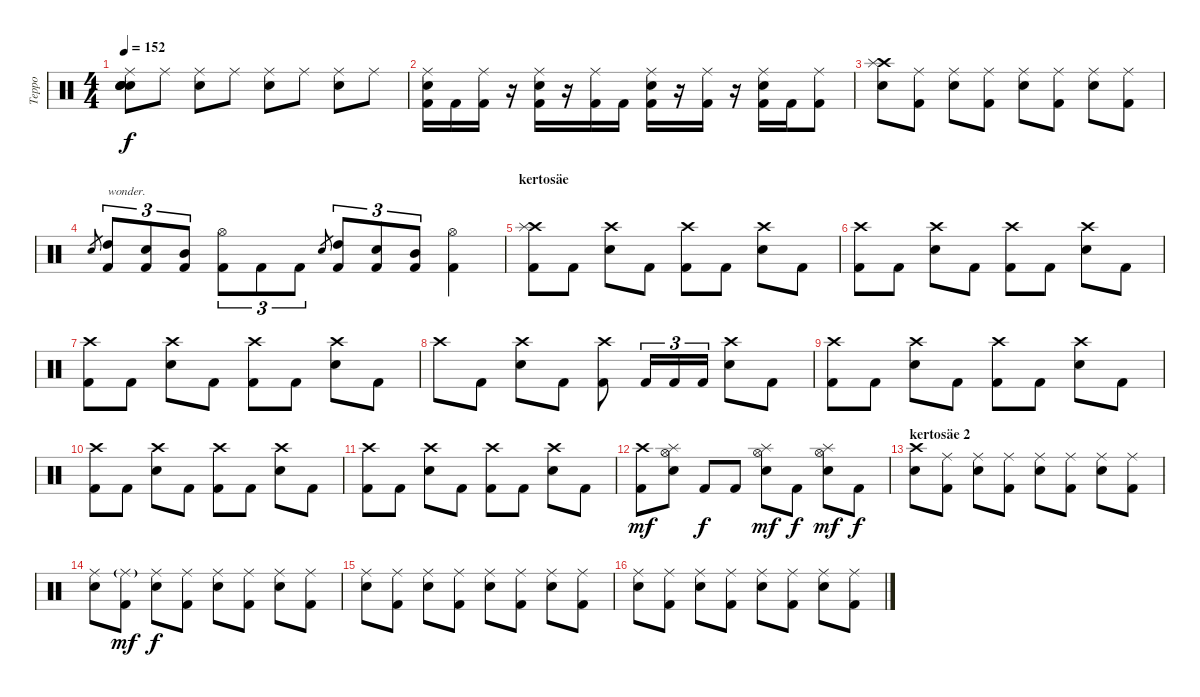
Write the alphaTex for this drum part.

\track ("Teppo" "Teppo") {instrument percussion}
\staff {score}
\articulation defaults
\ts (4 4)
\tempo 152
\clef neutral
\ks c
("Snare (hit)"{t} "Snare (hit)"{t} "Ride (middle)" "Electric Snare (hit)" "Snare (hit)"{t}).8{dy f} "Ride (middle)".8 ("Ride (middle)" "Electric Snare (hit)").8 "Ride (middle)".8 ("Ride (middle)" "Electric Snare (hit)").8 "Ride (middle)".8 ("Ride (middle)" "Electric Snare (hit)").8 "Ride (middle)".8 |
("Ride (middle)" "Electric Snare (hit)" "Kick (hit) 2").16 "Kick (hit) 2".16 ("Ride (middle)" "Kick (hit) 2").16 r.16 ("Ride (middle)" "Electric Snare (hit)" "Kick (hit) 2").16 r.16 ("Ride (middle)" "Kick (hit) 2").16 "Kick (hit) 2".16 ("Ride (middle)" "Electric Snare (hit)" "Kick (hit) 2").16 r.16 ("Ride (middle)" "Kick (hit) 2").16 r.16 ("Ride (middle)" "Electric Snare (hit)" "Kick (hit) 2").16 "Kick (hit) 2".16 ("Ride (middle)" "Kick (hit) 2").8 |
("Crash high (hit)" "Splash (hit)" "Electric Snare (hit)").8 ("Ride (middle)" "Kick (hit) 2").8 ("Ride (middle)" "Electric Snare (hit)").8 ("Ride (middle)" "Kick (hit) 2").8 ("Ride (middle)" "Electric Snare (hit)").8 ("Ride (middle)" "Kick (hit) 2").8 ("Ride (middle)" "Electric Snare (hit)").8 ("Ride (middle)" "Kick (hit) 2").8 |
"Electric Snare (hit)".8{gr} ("High Tom (hit)" "Kick (hit) 2").8{tu (3 2) txt "wonder."} ("Electric Snare (hit)" "Kick (hit) 2").8{tu (3 2)} ("Mid Tom (hit)" "Kick (hit) 2").8{tu (3 2)} ("Hi-Hat (open)" "Kick (hit) 2").8{tu (3 2)} "Kick (hit) 2".8{tu (3 2)} "Kick (hit) 2".8{tu (3 2)} "Electric Snare (hit)".8{gr} ("High Tom (hit)" "Kick (hit) 2").8{tu (3 2)} ("Electric Snare (hit)" "Kick (hit) 2").8{tu (3 2)} ("Mid Tom (hit)" "Kick (hit) 2").8{tu (3 2)} ("Hi-Hat (open)" "Kick (hit) 2").4 |
\section ("" "kertosäe")
("Crash high (hit)" "Splash (hit)" "Kick (hit) 2").8 "Kick (hit) 2".8 ("Crash high (hit)" "Electric Snare (hit)").8 "Kick (hit) 2".8 ("Crash high (hit)" "Kick (hit) 2").8 "Kick (hit) 2".8 ("Crash high (hit)" "Electric Snare (hit)").8 "Kick (hit) 2".8 |
("Crash high (hit)" "Kick (hit) 2").8 "Kick (hit) 2".8 ("Crash high (hit)" "Electric Snare (hit)").8 "Kick (hit) 2".8 ("Crash high (hit)" "Kick (hit) 2").8 "Kick (hit) 2".8 ("Crash high (hit)" "Electric Snare (hit)").8 "Kick (hit) 2".8 |
("Crash high (hit)" "Kick (hit) 2").8 "Kick (hit) 2".8 ("Crash high (hit)" "Electric Snare (hit)").8 "Kick (hit) 2".8 ("Crash high (hit)" "Kick (hit) 2").8 "Kick (hit) 2".8 ("Crash high (hit)" "Electric Snare (hit)").8 "Kick (hit) 2".8 |
"Crash high (hit)".8 "Kick (hit) 2".8 ("Crash high (hit)" "Electric Snare (hit)").8 "Kick (hit) 2".8 ("Crash high (hit)" "Kick (hit) 2").8 "Kick (hit) 2".16{tu (3 2)} "Kick (hit) 2".16{tu (3 2)} "Kick (hit) 2".16{tu (3 2)} ("Crash high (hit)" "Electric Snare (hit)").8 "Kick (hit) 2".8 |
("Crash high (hit)" "Kick (hit) 2").8 "Kick (hit) 2".8 ("Crash high (hit)" "Electric Snare (hit)").8 "Kick (hit) 2".8 ("Crash high (hit)" "Kick (hit) 2").8 "Kick (hit) 2".8 ("Crash high (hit)" "Electric Snare (hit)").8 "Kick (hit) 2".8 |
("Crash high (hit)" "Kick (hit) 2").8 "Kick (hit) 2".8 ("Crash high (hit)" "Electric Snare (hit)").8 "Kick (hit) 2".8 ("Crash high (hit)" "Kick (hit) 2").8 "Kick (hit) 2".8 ("Crash high (hit)" "Electric Snare (hit)").8 "Kick (hit) 2".8 |
("Crash high (hit)" "Kick (hit) 2").8 "Kick (hit) 2".8 ("Crash high (hit)" "Electric Snare (hit)").8 "Kick (hit) 2".8 ("Crash high (hit)" "Kick (hit) 2").8 "Kick (hit) 2".8 ("Crash high (hit)" "Electric Snare (hit)").8 "Kick (hit) 2".8 |
("Crash high (hit)" "Kick (hit) 2").8{dy mf} ("Hi-Hat (open)" "Splash (hit)" "Electric Snare (hit)").8 "Kick (hit) 2".8{dy f} "Kick (hit) 2".8 ("Hi-Hat (open)" "Splash (hit)" "Electric Snare (hit)").8{dy mf} "Kick (hit) 2".8{dy f} ("Hi-Hat (open)" "Splash (hit)" "Electric Snare (hit)").8{dy mf} "Kick (hit) 2".8{dy f} |
\section ("" "kertosäe 2")
("Crash high (hit)" "Electric Snare (hit)").8 ("Ride (middle)" "Kick (hit) 2").8 ("Ride (middle)" "Electric Snare (hit)").8 ("Ride (middle)" "Kick (hit) 2").8 ("Ride (middle)" "Electric Snare (hit)").8 ("Ride (middle)" "Kick (hit) 2").8 ("Ride (middle)" "Electric Snare (hit)").8 ("Ride (middle)" "Kick (hit) 2").8 |
("Ride (middle)" "Electric Snare (hit)").8 ("Ride (middle)"{g} "Kick (hit) 2").8{dy mf} ("Ride (middle)" "Electric Snare (hit)").8{dy f} ("Ride (middle)" "Kick (hit) 2").8 ("Ride (middle)" "Electric Snare (hit)").8 ("Ride (middle)" "Kick (hit) 2").8 ("Ride (middle)" "Electric Snare (hit)").8 ("Ride (middle)" "Kick (hit) 2").8 |
("Ride (middle)" "Electric Snare (hit)").8 ("Ride (middle)" "Kick (hit) 2").8 ("Ride (middle)" "Electric Snare (hit)").8 ("Ride (middle)" "Kick (hit) 2").8 ("Ride (middle)" "Electric Snare (hit)").8 ("Ride (middle)" "Kick (hit) 2").8 ("Ride (middle)" "Electric Snare (hit)").8 ("Ride (middle)" "Kick (hit) 2").8 |
("Ride (middle)" "Electric Snare (hit)").8 ("Ride (middle)" "Kick (hit) 2").8 ("Ride (middle)" "Electric Snare (hit)").8 ("Ride (middle)" "Kick (hit) 2").8 ("Ride (middle)" "Electric Snare (hit)").8 ("Ride (middle)" "Kick (hit) 2").8 ("Ride (middle)" "Electric Snare (hit)").8 ("Ride (middle)" "Kick (hit) 2").8
